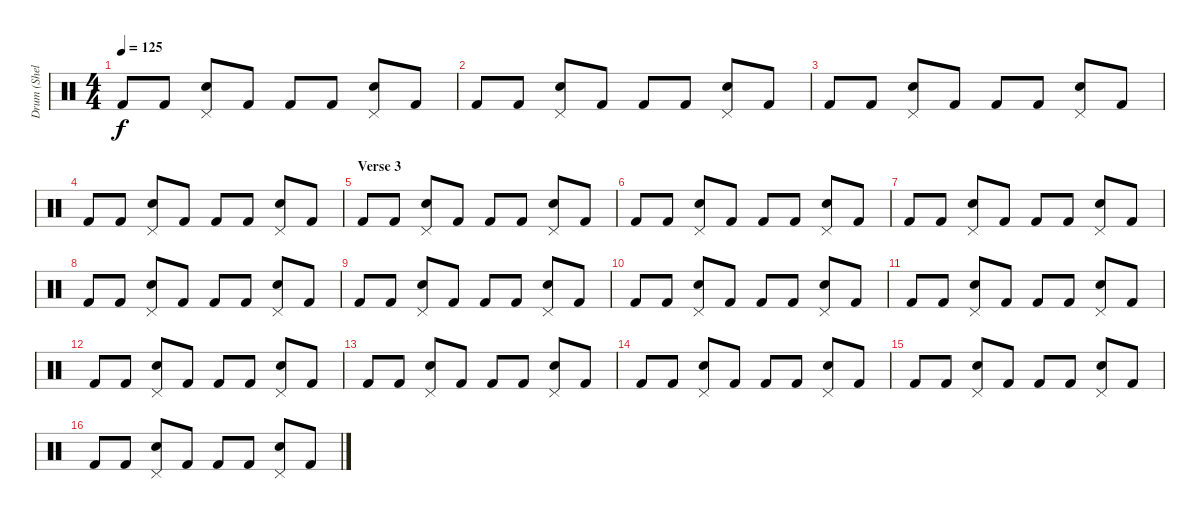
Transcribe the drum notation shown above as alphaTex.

\track ("Drum (Shelley)" "Drum (Shel") {instrument percussion}
\staff {score}
\articulation defaults
\ts (4 4)
\tempo 125
\clef neutral
\ks c "Kick (hit) 2".8{dy f} "Kick (hit) 2".8
("Pedal Hi-Hat (hit)" "Electric Snare (hit)").8 "Kick (hit) 2".8 "Kick (hit) 2".8 "Kick (hit) 2".8 ("Pedal Hi-Hat (hit)" "Electric Snare (hit)").8 "Kick (hit) 2".8 |
"Kick (hit) 2".8 "Kick (hit) 2".8 ("Pedal Hi-Hat (hit)" "Electric Snare (hit)").8 "Kick (hit) 2".8 "Kick (hit) 2".8 "Kick (hit) 2".8 ("Pedal Hi-Hat (hit)" "Electric Snare (hit)").8 "Kick (hit) 2".8 |
"Kick (hit) 2".8 "Kick (hit) 2".8 ("Pedal Hi-Hat (hit)" "Electric Snare (hit)").8 "Kick (hit) 2".8 "Kick (hit) 2".8 "Kick (hit) 2".8 ("Pedal Hi-Hat (hit)" "Electric Snare (hit)").8 "Kick (hit) 2".8 |
"Kick (hit) 2".8 "Kick (hit) 2".8 ("Pedal Hi-Hat (hit)" "Electric Snare (hit)").8 "Kick (hit) 2".8 "Kick (hit) 2".8 "Kick (hit) 2".8 ("Pedal Hi-Hat (hit)" "Electric Snare (hit)").8 "Kick (hit) 2".8 |
\section ("" "Verse 3")
"Kick (hit) 2".8 "Kick (hit) 2".8 ("Pedal Hi-Hat (hit)" "Electric Snare (hit)").8 "Kick (hit) 2".8 "Kick (hit) 2".8 "Kick (hit) 2".8 ("Pedal Hi-Hat (hit)" "Electric Snare (hit)").8 "Kick (hit) 2".8 |
"Kick (hit) 2".8 "Kick (hit) 2".8 ("Pedal Hi-Hat (hit)" "Electric Snare (hit)").8 "Kick (hit) 2".8 "Kick (hit) 2".8 "Kick (hit) 2".8 ("Pedal Hi-Hat (hit)" "Electric Snare (hit)").8 "Kick (hit) 2".8 |
"Kick (hit) 2".8 "Kick (hit) 2".8 ("Pedal Hi-Hat (hit)" "Electric Snare (hit)").8 "Kick (hit) 2".8 "Kick (hit) 2".8 "Kick (hit) 2".8 ("Pedal Hi-Hat (hit)" "Electric Snare (hit)").8 "Kick (hit) 2".8 |
"Kick (hit) 2".8 "Kick (hit) 2".8 ("Pedal Hi-Hat (hit)" "Electric Snare (hit)").8 "Kick (hit) 2".8 "Kick (hit) 2".8 "Kick (hit) 2".8 ("Pedal Hi-Hat (hit)" "Electric Snare (hit)").8 "Kick (hit) 2".8 |
"Kick (hit) 2".8 "Kick (hit) 2".8 ("Pedal Hi-Hat (hit)" "Electric Snare (hit)").8 "Kick (hit) 2".8 "Kick (hit) 2".8 "Kick (hit) 2".8 ("Pedal Hi-Hat (hit)" "Electric Snare (hit)").8 "Kick (hit) 2".8 |
"Kick (hit) 2".8 "Kick (hit) 2".8 ("Pedal Hi-Hat (hit)" "Electric Snare (hit)").8 "Kick (hit) 2".8 "Kick (hit) 2".8 "Kick (hit) 2".8 ("Pedal Hi-Hat (hit)" "Electric Snare (hit)").8 "Kick (hit) 2".8 |
"Kick (hit) 2".8 "Kick (hit) 2".8 ("Pedal Hi-Hat (hit)" "Electric Snare (hit)").8 "Kick (hit) 2".8 "Kick (hit) 2".8 "Kick (hit) 2".8 ("Pedal Hi-Hat (hit)" "Electric Snare (hit)").8 "Kick (hit) 2".8 |
"Kick (hit) 2".8 "Kick (hit) 2".8 ("Pedal Hi-Hat (hit)" "Electric Snare (hit)").8 "Kick (hit) 2".8 "Kick (hit) 2".8 "Kick (hit) 2".8 ("Pedal Hi-Hat (hit)" "Electric Snare (hit)").8 "Kick (hit) 2".8 |
"Kick (hit) 2".8 "Kick (hit) 2".8 ("Pedal Hi-Hat (hit)" "Electric Snare (hit)").8 "Kick (hit) 2".8 "Kick (hit) 2".8 "Kick (hit) 2".8 ("Pedal Hi-Hat (hit)" "Electric Snare (hit)").8 "Kick (hit) 2".8 |
"Kick (hit) 2".8 "Kick (hit) 2".8 ("Pedal Hi-Hat (hit)" "Electric Snare (hit)").8 "Kick (hit) 2".8 "Kick (hit) 2".8 "Kick (hit) 2".8 ("Pedal Hi-Hat (hit)" "Electric Snare (hit)").8 "Kick (hit) 2".8 |
"Kick (hit) 2".8 "Kick (hit) 2".8 ("Pedal Hi-Hat (hit)" "Electric Snare (hit)").8 "Kick (hit) 2".8 "Kick (hit) 2".8 "Kick (hit) 2".8 ("Pedal Hi-Hat (hit)" "Electric Snare (hit)").8 "Kick (hit) 2".8 |
"Kick (hit) 2".8 "Kick (hit) 2".8 ("Pedal Hi-Hat (hit)" "Electric Snare (hit)").8 "Kick (hit) 2".8 "Kick (hit) 2".8 "Kick (hit) 2".8 ("Pedal Hi-Hat (hit)" "Electric Snare (hit)").8 "Kick (hit) 2".8
